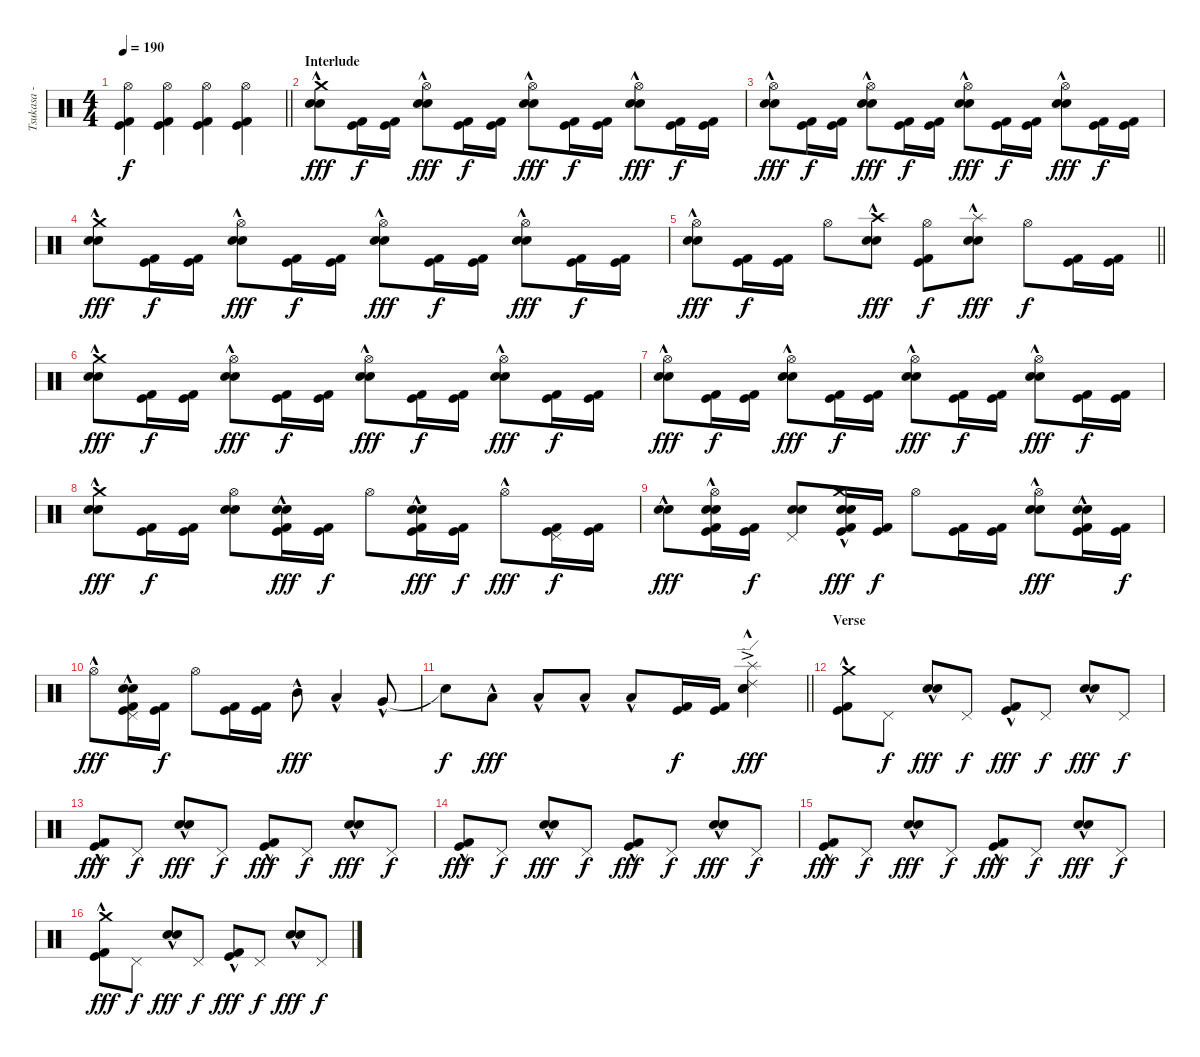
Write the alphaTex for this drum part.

\track ("Tsukasa - Drums" "Tsukasa - ") {instrument percussion}
\staff {score}
\articulation defaults
\ts (4 4)
\tempo 190
\clef neutral
\barLineRight lightlight
\ks c
("Hi-Hat (open)" "Kick (hit)" "Kick (hit) 2").4{dy f} ("Hi-Hat (open)" "Kick (hit)" "Kick (hit) 2").4 ("Hi-Hat (open)" "Kick (hit)" "Kick (hit) 2").4 ("Hi-Hat (open)" "Kick (hit)" "Kick (hit) 2").4 |
\section ("" "Interlude")
("Crash medium (hit)" "Electric Snare (hit)"{hac} "Snare (hit) 2").8{dy fff} ("Kick (hit)" "Kick (hit) 2").16{dy f} ("Kick (hit)" "Kick (hit) 2").16 ("Hi-Hat (open)" "Electric Snare (hit)"{hac} "Snare (hit) 2").8{dy fff} ("Kick (hit)" "Kick (hit) 2").16{dy f} ("Kick (hit)" "Kick (hit) 2").16 ("Hi-Hat (open)" "Electric Snare (hit)"{hac} "Snare (hit) 2").8{dy fff} ("Kick (hit)" "Kick (hit) 2").16{dy f} ("Kick (hit)" "Kick (hit) 2").16 ("Hi-Hat (open)" "Electric Snare (hit)"{hac} "Snare (hit) 2").8{dy fff} ("Kick (hit)" "Kick (hit) 2").16{dy f} ("Kick (hit)" "Kick (hit) 2").16 |
("Hi-Hat (open)" "Electric Snare (hit)"{hac} "Snare (hit) 2").8{dy fff} ("Kick (hit)" "Kick (hit) 2").16{dy f} ("Kick (hit)" "Kick (hit) 2").16 ("Hi-Hat (open)" "Electric Snare (hit)"{hac} "Snare (hit) 2").8{dy fff} ("Kick (hit)" "Kick (hit) 2").16{dy f} ("Kick (hit)" "Kick (hit) 2").16 ("Hi-Hat (open)" "Electric Snare (hit)"{hac} "Snare (hit) 2").8{dy fff} ("Kick (hit)" "Kick (hit) 2").16{dy f} ("Kick (hit)" "Kick (hit) 2").16 ("Hi-Hat (open)" "Electric Snare (hit)"{hac} "Snare (hit) 2").8{dy fff} ("Kick (hit)" "Kick (hit) 2").16{dy f} ("Kick (hit)" "Kick (hit) 2").16 |
("Crash medium (hit)" "Electric Snare (hit)"{hac} "Snare (hit) 2").8{dy fff} ("Kick (hit)" "Kick (hit) 2").16{dy f} ("Kick (hit)" "Kick (hit) 2").16 ("Hi-Hat (open)" "Electric Snare (hit)"{hac} "Snare (hit) 2").8{dy fff} ("Kick (hit)" "Kick (hit) 2").16{dy f} ("Kick (hit)" "Kick (hit) 2").16 ("Hi-Hat (open)" "Electric Snare (hit)"{hac} "Snare (hit) 2").8{dy fff} ("Kick (hit)" "Kick (hit) 2").16{dy f} ("Kick (hit)" "Kick (hit) 2").16 ("Hi-Hat (open)" "Electric Snare (hit)"{hac} "Snare (hit) 2").8{dy fff} ("Kick (hit)" "Kick (hit) 2").16{dy f} ("Kick (hit)" "Kick (hit) 2").16 |
\barLineRight lightlight
("Hi-Hat (open)" "Electric Snare (hit)"{hac} "Snare (hit) 2").8{dy fff} ("Kick (hit)" "Kick (hit) 2").16{dy f} ("Kick (hit)" "Kick (hit) 2").16 "Hi-Hat (open)".8 ("Crash high (hit)" "Electric Snare (hit)"{hac} "Snare (hit) 2").8{dy fff} ("Hi-Hat (open)" "Kick (hit)" "Kick (hit) 2").8{dy f} ("Splash (hit)"{hac} "Electric Snare (hit)"{hac} "Snare (hit) 2").8{dy fff} "Hi-Hat (open)".8{dy f} ("Kick (hit)" "Kick (hit) 2").16 ("Kick (hit)" "Kick (hit) 2").16 |
\section ("" "")
("Crash medium (hit)" "Electric Snare (hit)"{hac} "Snare (hit) 2").8{dy fff} ("Kick (hit)" "Kick (hit) 2").16{dy f} ("Kick (hit)" "Kick (hit) 2").16 ("Hi-Hat (open)" "Electric Snare (hit)"{hac} "Snare (hit) 2").8{dy fff} ("Kick (hit)" "Kick (hit) 2").16{dy f} ("Kick (hit)" "Kick (hit) 2").16 ("Hi-Hat (open)" "Electric Snare (hit)"{hac} "Snare (hit) 2").8{dy fff} ("Kick (hit)" "Kick (hit) 2").16{dy f} ("Kick (hit)" "Kick (hit) 2").16 ("Hi-Hat (open)" "Electric Snare (hit)"{hac} "Snare (hit) 2").8{dy fff} ("Kick (hit)" "Kick (hit) 2").16{dy f} ("Kick (hit)" "Kick (hit) 2").16 |
("Hi-Hat (open)" "Electric Snare (hit)"{hac} "Snare (hit) 2").8{dy fff} ("Kick (hit)" "Kick (hit) 2").16{dy f} ("Kick (hit)" "Kick (hit) 2").16 ("Hi-Hat (open)" "Electric Snare (hit)"{hac} "Snare (hit) 2").8{dy fff} ("Kick (hit)" "Kick (hit) 2").16{dy f} ("Kick (hit)" "Kick (hit) 2").16 ("Hi-Hat (open)" "Electric Snare (hit)"{hac} "Snare (hit) 2").8{dy fff} ("Kick (hit)" "Kick (hit) 2").16{dy f} ("Kick (hit)" "Kick (hit) 2").16 ("Hi-Hat (open)" "Electric Snare (hit)"{hac} "Snare (hit) 2").8{dy fff} ("Kick (hit)" "Kick (hit) 2").16{dy f} ("Kick (hit)" "Kick (hit) 2").16 |
("Crash medium (hit)" "Electric Snare (hit)"{hac} "Snare (hit) 2").8{dy fff} ("Kick (hit)" "Kick (hit) 2").16{dy f} ("Kick (hit)" "Kick (hit) 2").16 ("Hi-Hat (open)" "Electric Snare (hit)" "Snare (hit) 2").8 ("Electric Snare (hit)"{hac} "Snare (hit) 2" "Kick (hit)" "Kick (hit) 2").16{dy fff} ("Kick (hit)" "Kick (hit) 2").16{dy f} "Hi-Hat (open)".8 ("Electric Snare (hit)"{hac} "Snare (hit) 2" "Kick (hit)" "Kick (hit) 2").16{dy fff} ("Kick (hit)" "Kick (hit) 2").16{dy f} "Hi-Hat (open)"{hac}.8{dy fff} ("Pedal Hi-Hat (hit)" "Kick (hit)" "Kick (hit) 2").16{dy f} ("Kick (hit)" "Kick (hit) 2").16 |
("Electric Snare (hit)"{hac} "Snare (hit) 2").8{dy fff} ("Hi-Hat (open)"{hac} "Electric Snare (hit)"{hac} "Snare (hit) 2" "Kick (hit)" "Kick (hit) 2").16 ("Kick (hit)" "Kick (hit) 2").16{dy f} ("Pedal Hi-Hat (hit)" "Electric Snare (hit)" "Snare (hit) 2").8 ("Crash medium (hit)" "Electric Snare (hit)"{hac} "Snare (hit) 2" "Kick (hit)" "Kick (hit) 2").16{dy fff} ("Kick (hit)" "Kick (hit) 2").16{dy f} "Hi-Hat (open)".8 ("Kick (hit)" "Kick (hit) 2").16 ("Kick (hit)" "Kick (hit) 2").16 ("Hi-Hat (open)" "Electric Snare (hit)"{hac} "Snare (hit) 2").8{dy fff} ("Electric Snare (hit)"{hac} "Snare (hit) 2" "Kick (hit)" "Kick (hit) 2").16 ("Kick (hit)" "Kick (hit) 2").16{dy f} |
"Hi-Hat (open)"{hac}.8{dy fff} ("Pedal Hi-Hat (hit)" "Electric Snare (hit)"{hac} "Snare (hit) 2" "Kick (hit)" "Kick (hit) 2").16 ("Kick (hit)" "Kick (hit) 2").16{dy f} "Hi-Hat (open)".8 ("Kick (hit)" "Kick (hit) 2").16 ("Kick (hit)" "Kick (hit) 2").16 "Mid Tom (hit)"{hac}.8{dy fff} "Low Tom (hit)"{hac}.4 "Very Low Tom (hit)"{hac}.8 |
\barLineRight lightlight "Snare (hit)"{t}.8{dy f} "Low Floor Tom (hit)"{hac}.8{dy fff} "Low Floor Tom (hit)"{hac}.8 "Low Floor Tom (hit)"{hac}.8 "Low Floor Tom (hit)"{hac}.8
("Kick (hit)" "Kick (hit) 2").16{dy f} ("Kick (hit)" "Kick (hit) 2").16 ("Splash (hit)" "Ride (edge) 2"{ac} "Electric Snare (hit)"{hac} "Snare (hit) 2").4{dy fff} |
\section ("" "Verse")
("Crash medium (hit)" "Kick (hit)"{hac} "Kick (hit) 2"{hac}).8 "Pedal Hi-Hat (hit)".8{dy f} ("Electric Snare (hit)"{hac} "Snare (hit) 2"{hac}).8{dy fff} "Pedal Hi-Hat (hit)".8{dy f} ("Kick (hit)"{hac} "Kick (hit) 2"{hac}).8{dy fff} "Pedal Hi-Hat (hit)".8{dy f} ("Electric Snare (hit)"{hac} "Snare (hit) 2").8{dy fff} "Pedal Hi-Hat (hit)".8{dy f} |
("Kick (hit)"{hac} "Kick (hit) 2"{hac}).8{dy fff} "Pedal Hi-Hat (hit)".8{dy f} ("Electric Snare (hit)"{hac} "Snare (hit) 2"{hac}).8{dy fff} "Pedal Hi-Hat (hit)".8{dy f} ("Kick (hit)"{hac} "Kick (hit) 2"{hac}).8{dy fff} "Pedal Hi-Hat (hit)".8{dy f} ("Electric Snare (hit)"{hac} "Snare (hit) 2").8{dy fff} "Pedal Hi-Hat (hit)".8{dy f} |
("Kick (hit)"{hac} "Kick (hit) 2"{hac}).8{dy fff} "Pedal Hi-Hat (hit)".8{dy f} ("Electric Snare (hit)"{hac} "Snare (hit) 2"{hac}).8{dy fff} "Pedal Hi-Hat (hit)".8{dy f} ("Kick (hit)"{hac} "Kick (hit) 2"{hac}).8{dy fff} "Pedal Hi-Hat (hit)".8{dy f} ("Electric Snare (hit)"{hac} "Snare (hit) 2").8{dy fff} "Pedal Hi-Hat (hit)".8{dy f} |
("Kick (hit)"{hac} "Kick (hit) 2"{hac}).8{dy fff} "Pedal Hi-Hat (hit)".8{dy f} ("Electric Snare (hit)"{hac} "Snare (hit) 2"{hac}).8{dy fff} "Pedal Hi-Hat (hit)".8{dy f} ("Kick (hit)"{hac} "Kick (hit) 2"{hac}).8{dy fff} "Pedal Hi-Hat (hit)".8{dy f} ("Electric Snare (hit)"{hac} "Snare (hit) 2").8{dy fff} "Pedal Hi-Hat (hit)".8{dy f} |
("Crash medium (hit)" "Kick (hit)"{hac} "Kick (hit) 2"{hac}).8{dy fff} "Pedal Hi-Hat (hit)".8{dy f} ("Electric Snare (hit)"{hac} "Snare (hit) 2"{hac}).8{dy fff} "Pedal Hi-Hat (hit)".8{dy f} ("Kick (hit)"{hac} "Kick (hit) 2"{hac}).8{dy fff} "Pedal Hi-Hat (hit)".8{dy f} ("Electric Snare (hit)"{hac} "Snare (hit) 2").8{dy fff} "Pedal Hi-Hat (hit)".8{dy f}
